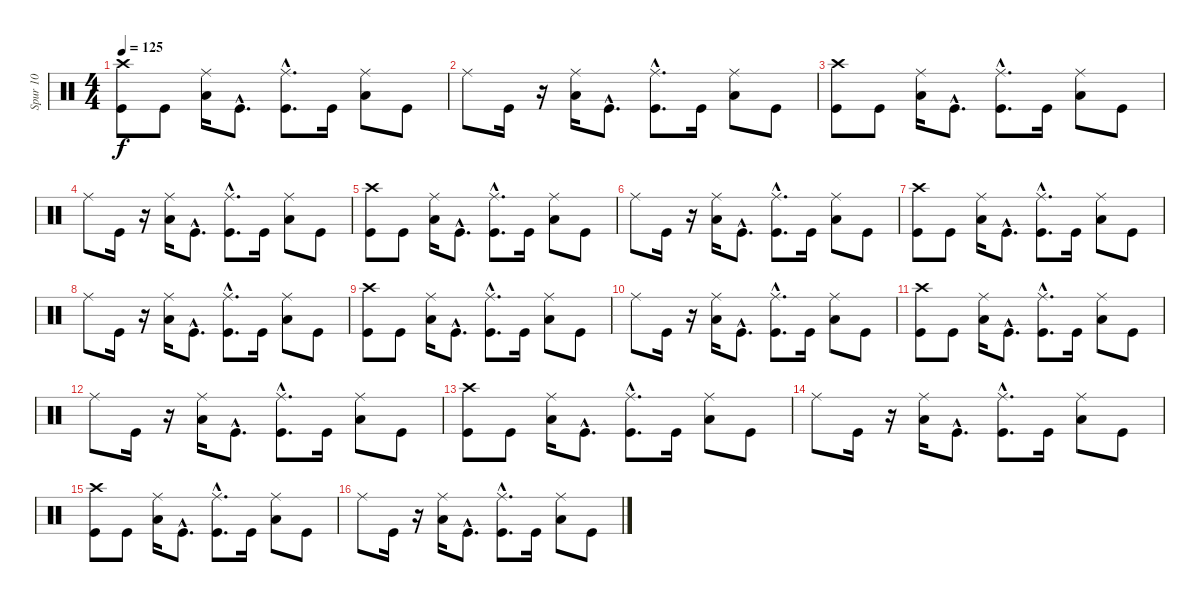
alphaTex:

\track ("Spur 10" "Spur 10") {instrument percussion}
\staff {score}
\articulation defaults
\ts (4 4)
\tempo 125
\clef neutral
\ks c
("Crash high (hit)" "Kick (hit)").8{dy f} "Kick (hit)".8 ("Ride (middle)" "Low Tom (hit)").16 "Kick (hit)"{hac}.8{d} ("Kick (hit)"{hac} "Ride (middle)").8{d} "Kick (hit)".16 ("Ride (middle)" "Low Tom (hit)").8 "Kick (hit)".8 |
"Ride (middle)".8 "Kick (hit)".16 r.16 ("Ride (middle)" "Low Tom (hit)").16 "Kick (hit)"{hac}.8{d} ("Ride (middle)" "Kick (hit)"{hac}).8{d} "Kick (hit)".16 ("Low Tom (hit)" "Ride (middle)").8 "Kick (hit)".8 |
("Crash high (hit)" "Kick (hit)").8 "Kick (hit)".8 ("Low Tom (hit)" "Ride (middle)").16 "Kick (hit)"{hac}.8{d} ("Ride (middle)" "Kick (hit)"{hac}).8{d} "Kick (hit)".16 ("Low Tom (hit)" "Ride (middle)").8 "Kick (hit)".8 |
"Ride (middle)".8 "Kick (hit)".16 r.16 ("Ride (middle)" "Low Tom (hit)").16 "Kick (hit)"{hac}.8{d} ("Kick (hit)"{hac} "Ride (middle)").8{d} "Kick (hit)".16 ("Ride (middle)" "Low Tom (hit)").8 "Kick (hit)".8 |
("Kick (hit)" "Crash high (hit)").8 "Kick (hit)".8 ("Ride (middle)" "Low Tom (hit)").16 "Kick (hit)"{hac}.8{d} ("Kick (hit)"{hac} "Ride (middle)").8{d} "Kick (hit)".16 ("Low Tom (hit)" "Ride (middle)").8 "Kick (hit)".8 |
"Ride (middle)".8 "Kick (hit)".16 r.16 ("Ride (middle)" "Low Tom (hit)").16 "Kick (hit)"{hac}.8{d} ("Kick (hit)"{hac} "Ride (middle)").8{d} "Kick (hit)".16 ("Ride (middle)" "Low Tom (hit)").8 "Kick (hit)".8 |
("Crash high (hit)" "Kick (hit)").8 "Kick (hit)".8 ("Ride (middle)" "Low Tom (hit)").16 "Kick (hit)"{hac}.8{d} ("Ride (middle)" "Kick (hit)"{hac}).8{d} "Kick (hit)".16 ("Ride (middle)" "Low Tom (hit)").8 "Kick (hit)".8 |
"Ride (middle)".8 "Kick (hit)".16 r.16 ("Ride (middle)" "Low Tom (hit)").16 "Kick (hit)"{hac}.8{d} ("Kick (hit)"{hac} "Ride (middle)").8{d} "Kick (hit)".16 ("Ride (middle)" "Low Tom (hit)").8 "Kick (hit)".8 |
("Crash high (hit)" "Kick (hit)").8 "Kick (hit)".8 ("Ride (middle)" "Low Tom (hit)").16 "Kick (hit)"{hac}.8{d} ("Kick (hit)"{hac} "Ride (middle)").8{d} "Kick (hit)".16 ("Ride (middle)" "Low Tom (hit)").8 "Kick (hit)".8 |
"Ride (middle)".8 "Kick (hit)".16 r.16 ("Ride (middle)" "Low Tom (hit)").16 "Kick (hit)"{hac}.8{d} ("Kick (hit)"{hac} "Ride (middle)").8{d} "Kick (hit)".16 ("Low Tom (hit)" "Ride (middle)").8 "Kick (hit)".8 |
("Kick (hit)" "Crash high (hit)").8 "Kick (hit)".8 ("Ride (middle)" "Low Tom (hit)").16 "Kick (hit)"{hac}.8{d} ("Ride (middle)" "Kick (hit)"{hac}).8{d} "Kick (hit)".16 ("Low Tom (hit)" "Ride (middle)").8 "Kick (hit)".8 |
"Ride (middle)".8 "Kick (hit)".16 r.16 ("Low Tom (hit)" "Ride (middle)").16 "Kick (hit)"{hac}.8{d} ("Ride (middle)" "Kick (hit)"{hac}).8{d} "Kick (hit)".16 ("Ride (middle)" "Low Tom (hit)").8 "Kick (hit)".8 |
("Kick (hit)" "Crash high (hit)").8 "Kick (hit)".8 ("Ride (middle)" "Low Tom (hit)").16 "Kick (hit)"{hac}.8{d} ("Ride (middle)" "Kick (hit)"{hac}).8{d} "Kick (hit)".16 ("Low Tom (hit)" "Ride (middle)").8 "Kick (hit)".8 |
"Ride (middle)".8 "Kick (hit)".16 r.16 ("Low Tom (hit)" "Ride (middle)").16 "Kick (hit)"{hac}.8{d} ("Ride (middle)" "Kick (hit)"{hac}).8{d} "Kick (hit)".16 ("Ride (middle)" "Low Tom (hit)").8 "Kick (hit)".8 |
("Crash high (hit)" "Kick (hit)").8 "Kick (hit)".8 ("Low Tom (hit)" "Ride (middle)").16 "Kick (hit)"{hac}.8{d} ("Ride (middle)" "Kick (hit)"{hac}).8{d} "Kick (hit)".16 ("Low Tom (hit)" "Ride (middle)").8 "Kick (hit)".8 |
"Ride (middle)".8 "Kick (hit)".16 r.16 ("Low Tom (hit)" "Ride (middle)").16 "Kick (hit)"{hac}.8{d} ("Kick (hit)"{hac} "Ride (middle)").8{d} "Kick (hit)".16 ("Low Tom (hit)" "Ride (middle)").8 "Kick (hit)".8
